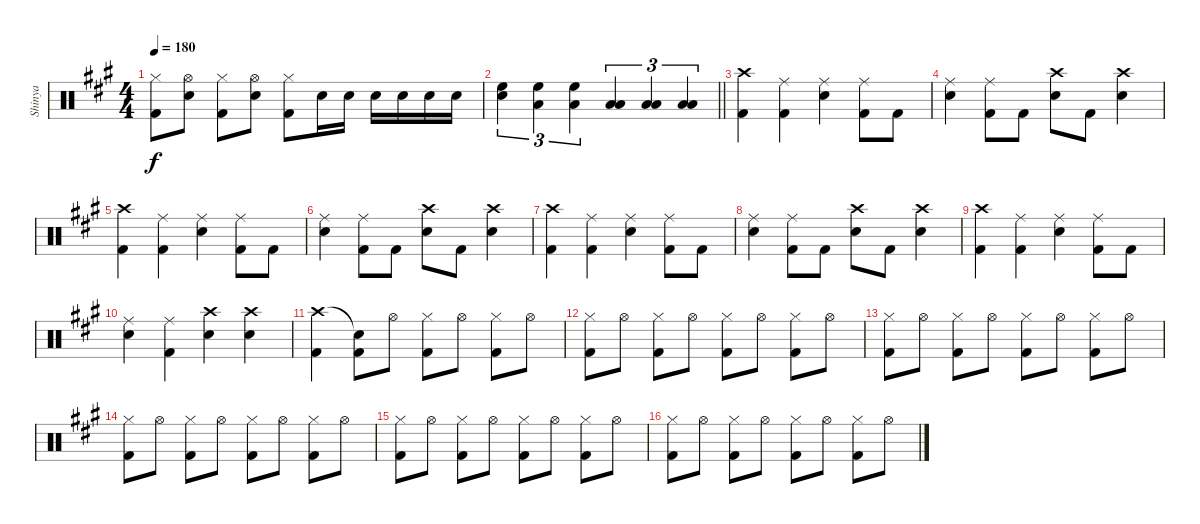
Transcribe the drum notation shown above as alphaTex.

\track ("Shinya" "Shinya") {instrument percussion}
\staff {score}
\articulation defaults
\ts (4 4)
\tempo 180
\clef neutral
\ks a
("Hi-Hat (closed)" "Kick (hit) 2").8{dy f} ("Hi-Hat (open)" "Electric Snare (hit)").8 ("Hi-Hat (closed)" "Kick (hit) 2").8 ("Hi-Hat (open)" "Electric Snare (hit)").8 ("Hi-Hat (closed)" "Kick (hit) 2").8 "Electric Snare (hit)".16 "Electric Snare (hit)".16 "Electric Snare (hit)".16 "Electric Snare (hit)".16 "Electric Snare (hit)".16 "Electric Snare (hit)".16 |
\barLineRight lightlight
("High Floor Tom (hit)" "Electric Snare (hit)").4{tu (3 2)} ("High Floor Tom (hit)" "Low Tom (hit)").4{tu (3 2)} ("High Floor Tom (hit)" "Low Tom (hit)").4{tu (3 2)} ("Low Tom (hit)" "Low Floor Tom (hit)").4{tu (3 2)} ("Low Tom (hit)" "Low Floor Tom (hit)").4{tu (3 2)} ("Low Tom (hit)" "Low Floor Tom (hit)").4{tu (3 2)} |
("Crash high (hit)" "Kick (hit) 2").4 ("Ride (middle)" "Kick (hit) 2").4 ("Ride (middle)" "Electric Snare (hit)").4 ("Ride (middle)" "Kick (hit) 2").8 "Kick (hit) 2".8 |
("Ride (middle)" "Electric Snare (hit)").4 ("Ride (middle)" "Kick (hit) 2").8 "Kick (hit) 2".8 ("Crash high (hit)" "Electric Snare (hit)").8 "Kick (hit) 2".8 ("Crash high (hit)" "Electric Snare (hit)").4 |
("Crash high (hit)" "Kick (hit) 2").4 ("Ride (middle)" "Kick (hit) 2").4 ("Ride (middle)" "Electric Snare (hit)").4 ("Ride (middle)" "Kick (hit) 2").8 "Kick (hit) 2".8 |
("Ride (middle)" "Electric Snare (hit)").4 ("Ride (middle)" "Kick (hit) 2").8 "Kick (hit) 2".8 ("Crash high (hit)" "Electric Snare (hit)").8 "Kick (hit) 2".8 ("Crash high (hit)" "Electric Snare (hit)").4 |
("Crash high (hit)" "Kick (hit) 2").4 ("Ride (middle)" "Kick (hit) 2").4 ("Ride (middle)" "Electric Snare (hit)").4 ("Ride (middle)" "Kick (hit) 2").8 "Kick (hit) 2".8 |
("Ride (middle)" "Electric Snare (hit)").4 ("Ride (middle)" "Kick (hit) 2").8 "Kick (hit) 2".8 ("Crash high (hit)" "Electric Snare (hit)").8 "Kick (hit) 2".8 ("Crash high (hit)" "Electric Snare (hit)").4 |
("Crash high (hit)" "Kick (hit) 2").4 ("Ride (middle)" "Kick (hit) 2").4 ("Ride (middle)" "Electric Snare (hit)").4 ("Ride (middle)" "Kick (hit) 2").8 "Kick (hit) 2".8 |
("Ride (middle)" "Electric Snare (hit)").4 ("Ride (middle)" "Kick (hit) 2").4 ("Crash high (hit)" "Electric Snare (hit)").4 ("Crash high (hit)" "Electric Snare (hit)").4 |
("Crash high (hit)" "Kick (hit) 2").4 ("Snare (hit)"{t} "Kick (hit) 2").8 "Hi-Hat (open)".8 ("Hi-Hat (closed)" "Kick (hit) 2").8 "Hi-Hat (open)".8 ("Hi-Hat (closed)" "Kick (hit) 2").8 "Hi-Hat (open)".8 |
("Hi-Hat (closed)" "Kick (hit) 2").8 "Hi-Hat (open)".8 ("Hi-Hat (closed)" "Kick (hit) 2").8 "Hi-Hat (open)".8 ("Hi-Hat (closed)" "Kick (hit) 2").8 "Hi-Hat (open)".8 ("Hi-Hat (closed)" "Kick (hit) 2").8 "Hi-Hat (open)".8 |
("Hi-Hat (closed)" "Kick (hit) 2").8 "Hi-Hat (open)".8 ("Hi-Hat (closed)" "Kick (hit) 2").8 "Hi-Hat (open)".8 ("Hi-Hat (closed)" "Kick (hit) 2").8 "Hi-Hat (open)".8 ("Hi-Hat (closed)" "Kick (hit) 2").8 "Hi-Hat (open)".8 |
("Hi-Hat (closed)" "Kick (hit) 2").8 "Hi-Hat (open)".8 ("Hi-Hat (closed)" "Kick (hit) 2").8 "Hi-Hat (open)".8 ("Hi-Hat (closed)" "Kick (hit) 2").8 "Hi-Hat (open)".8 ("Hi-Hat (closed)" "Kick (hit) 2").8 "Hi-Hat (open)".8 |
("Hi-Hat (closed)" "Kick (hit) 2").8 "Hi-Hat (open)".8 ("Hi-Hat (closed)" "Kick (hit) 2").8 "Hi-Hat (open)".8 ("Hi-Hat (closed)" "Kick (hit) 2").8 "Hi-Hat (open)".8 ("Hi-Hat (closed)" "Kick (hit) 2").8 "Hi-Hat (open)".8 |
("Hi-Hat (closed)" "Kick (hit) 2").8 "Hi-Hat (open)".8 ("Hi-Hat (closed)" "Kick (hit) 2").8 "Hi-Hat (open)".8 ("Hi-Hat (closed)" "Kick (hit) 2").8 "Hi-Hat (open)".8 ("Hi-Hat (closed)" "Kick (hit) 2").8 "Hi-Hat (open)".8
